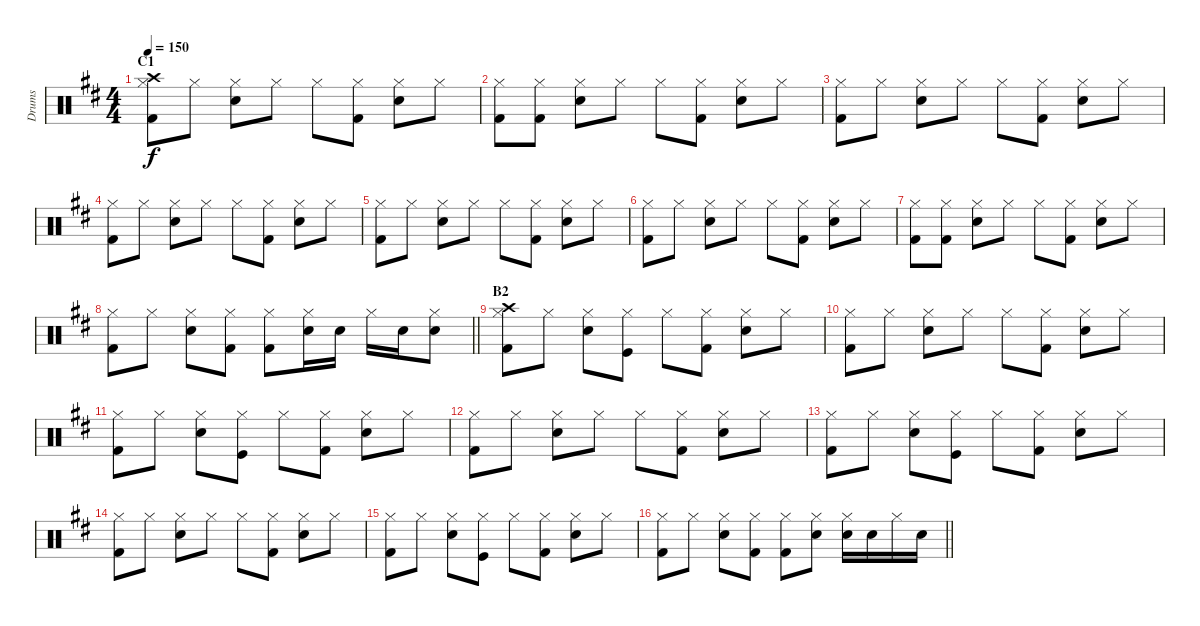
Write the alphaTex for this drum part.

\track ("Drums" "Drums") {instrument percussion}
\staff {score}
\articulation defaults
\ts (4 4)
\section ("" "C1")
\tempo 150
\clef neutral
\ks d
("Hi-Hat (closed)" "Crash high (hit)" "Kick (hit) 2").8{dy f} "Hi-Hat (closed)".8 ("Hi-Hat (closed)" "Electric Snare (hit)").8 "Hi-Hat (closed)".8 "Hi-Hat (closed)".8 ("Hi-Hat (closed)" "Kick (hit) 2").8 ("Hi-Hat (closed)" "Electric Snare (hit)").8 "Hi-Hat (closed)".8 |
("Hi-Hat (closed)" "Kick (hit) 2").8 ("Hi-Hat (closed)" "Kick (hit) 2").8 ("Hi-Hat (closed)" "Electric Snare (hit)").8 "Hi-Hat (closed)".8 "Hi-Hat (closed)".8 ("Hi-Hat (closed)" "Kick (hit) 2").8 ("Hi-Hat (closed)" "Electric Snare (hit)").8 "Hi-Hat (closed)".8 |
("Hi-Hat (closed)" "Kick (hit) 2").8 "Hi-Hat (closed)".8 ("Hi-Hat (closed)" "Electric Snare (hit)").8 "Hi-Hat (closed)".8 "Hi-Hat (closed)".8 ("Hi-Hat (closed)" "Kick (hit) 2").8 ("Hi-Hat (closed)" "Electric Snare (hit)").8 "Hi-Hat (closed)".8 |
("Hi-Hat (closed)" "Kick (hit) 2").8 "Hi-Hat (closed)".8 ("Hi-Hat (closed)" "Electric Snare (hit)").8 "Hi-Hat (closed)".8 "Hi-Hat (closed)".8 ("Hi-Hat (closed)" "Kick (hit) 2").8 ("Hi-Hat (closed)" "Electric Snare (hit)").8 "Hi-Hat (closed)".8 |
("Hi-Hat (closed)" "Kick (hit) 2").8 "Hi-Hat (closed)".8 ("Hi-Hat (closed)" "Electric Snare (hit)").8 "Hi-Hat (closed)".8 "Hi-Hat (closed)".8 ("Hi-Hat (closed)" "Kick (hit) 2").8 ("Hi-Hat (closed)" "Electric Snare (hit)").8 "Hi-Hat (closed)".8 |
("Hi-Hat (closed)" "Kick (hit) 2").8 "Hi-Hat (closed)".8 ("Hi-Hat (closed)" "Electric Snare (hit)").8 "Hi-Hat (closed)".8 "Hi-Hat (closed)".8 ("Hi-Hat (closed)" "Kick (hit) 2").8 ("Hi-Hat (closed)" "Electric Snare (hit)").8 "Hi-Hat (closed)".8 |
("Hi-Hat (closed)" "Kick (hit) 2").8 ("Hi-Hat (closed)" "Kick (hit) 2").8 ("Hi-Hat (closed)" "Electric Snare (hit)").8 "Hi-Hat (closed)".8 "Hi-Hat (closed)".8 ("Hi-Hat (closed)" "Kick (hit) 2").8 ("Hi-Hat (closed)" "Electric Snare (hit)").8 "Hi-Hat (closed)".8 |
\barLineRight lightlight
("Hi-Hat (closed)" "Kick (hit) 2").8 "Hi-Hat (closed)".8 ("Hi-Hat (closed)" "Electric Snare (hit)").8 ("Hi-Hat (closed)" "Kick (hit) 2").8 ("Hi-Hat (closed)" "Kick (hit) 2").8 ("Hi-Hat (closed)" "Electric Snare (hit)").16 "Electric Snare (hit)".16 "Hi-Hat (closed)".16 "Electric Snare (hit)".16 ("Hi-Hat (closed)" "Electric Snare (hit)").8 |
\section ("" "B2")
("Hi-Hat (closed)" "Crash high (hit)" "Kick (hit) 2").8 "Hi-Hat (closed)".8 ("Hi-Hat (closed)" "Electric Snare (hit)").8 ("Hi-Hat (closed)" "Kick (hit)").8 "Hi-Hat (closed)".8 ("Hi-Hat (closed)" "Kick (hit) 2").8 ("Hi-Hat (closed)" "Electric Snare (hit)").8 "Hi-Hat (closed)".8 |
("Hi-Hat (closed)" "Kick (hit) 2").8 "Hi-Hat (closed)".8 ("Hi-Hat (closed)" "Electric Snare (hit)").8 "Hi-Hat (closed)".8 "Hi-Hat (closed)".8 ("Hi-Hat (closed)" "Kick (hit) 2").8 ("Hi-Hat (closed)" "Electric Snare (hit)").8 "Hi-Hat (closed)".8 |
("Hi-Hat (closed)" "Kick (hit) 2").8 "Hi-Hat (closed)".8 ("Hi-Hat (closed)" "Electric Snare (hit)").8 ("Hi-Hat (closed)" "Kick (hit)").8 "Hi-Hat (closed)".8 ("Hi-Hat (closed)" "Kick (hit) 2").8 ("Hi-Hat (closed)" "Electric Snare (hit)").8 "Hi-Hat (closed)".8 |
("Hi-Hat (closed)" "Kick (hit) 2").8 "Hi-Hat (closed)".8 ("Hi-Hat (closed)" "Electric Snare (hit)").8 "Hi-Hat (closed)".8 "Hi-Hat (closed)".8 ("Hi-Hat (closed)" "Kick (hit) 2").8 ("Hi-Hat (closed)" "Electric Snare (hit)").8 "Hi-Hat (closed)".8 |
("Hi-Hat (closed)" "Kick (hit) 2").8 "Hi-Hat (closed)".8 ("Hi-Hat (closed)" "Electric Snare (hit)").8 ("Hi-Hat (closed)" "Kick (hit)").8 "Hi-Hat (closed)".8 ("Hi-Hat (closed)" "Kick (hit) 2").8 ("Hi-Hat (closed)" "Electric Snare (hit)").8 "Hi-Hat (closed)".8 |
("Hi-Hat (closed)" "Kick (hit) 2").8 "Hi-Hat (closed)".8 ("Hi-Hat (closed)" "Electric Snare (hit)").8 "Hi-Hat (closed)".8 "Hi-Hat (closed)".8 ("Hi-Hat (closed)" "Kick (hit) 2").8 ("Hi-Hat (closed)" "Electric Snare (hit)").8 "Hi-Hat (closed)".8 |
("Hi-Hat (closed)" "Kick (hit) 2").8 "Hi-Hat (closed)".8 ("Hi-Hat (closed)" "Electric Snare (hit)").8 ("Hi-Hat (closed)" "Kick (hit)").8 "Hi-Hat (closed)".8 ("Hi-Hat (closed)" "Kick (hit) 2").8 ("Hi-Hat (closed)" "Electric Snare (hit)").8 "Hi-Hat (closed)".8 |
\barLineRight lightlight
("Hi-Hat (closed)" "Kick (hit) 2").8 "Hi-Hat (closed)".8 ("Hi-Hat (closed)" "Electric Snare (hit)").8 ("Hi-Hat (closed)" "Kick (hit) 2").8 ("Hi-Hat (closed)" "Kick (hit) 2").8 ("Hi-Hat (closed)" "Electric Snare (hit)").8 ("Hi-Hat (closed)" "Electric Snare (hit)").16 "Electric Snare (hit)".16 "Hi-Hat (closed)".16 "Electric Snare (hit)".16
